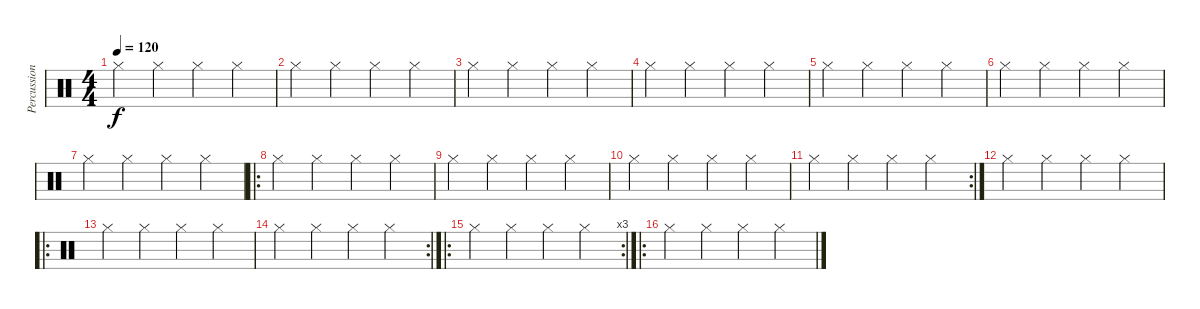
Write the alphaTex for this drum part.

\track ("Percussioni" "Percussion") {instrument percussion}
\staff {score}
\articulation defaults
\ts (4 4)
\tempo 120
\clef neutral
\ks c "Hi-Hat (closed)".4{dy f} "Hi-Hat (closed)".4 "Hi-Hat (closed)".4 "Hi-Hat (closed)".4
|
"Hi-Hat (closed)".4 "Hi-Hat (closed)".4 "Hi-Hat (closed)".4 "Hi-Hat (closed)".4 |
"Hi-Hat (closed)".4 "Hi-Hat (closed)".4 "Hi-Hat (closed)".4 "Hi-Hat (closed)".4 |
"Hi-Hat (closed)".4 "Hi-Hat (closed)".4 "Hi-Hat (closed)".4 "Hi-Hat (closed)".4 |
"Hi-Hat (closed)".4 "Hi-Hat (closed)".4 "Hi-Hat (closed)".4 "Hi-Hat (closed)".4 |
"Hi-Hat (closed)".4 "Hi-Hat (closed)".4 "Hi-Hat (closed)".4 "Hi-Hat (closed)".4 |
"Hi-Hat (closed)".4 "Hi-Hat (closed)".4 "Hi-Hat (closed)".4 "Hi-Hat (closed)".4 |
\ro "Hi-Hat (closed)".4 "Hi-Hat (closed)".4 "Hi-Hat (closed)".4 "Hi-Hat (closed)".4
|
"Hi-Hat (closed)".4 "Hi-Hat (closed)".4 "Hi-Hat (closed)".4 "Hi-Hat (closed)".4 |
"Hi-Hat (closed)".4 "Hi-Hat (closed)".4 "Hi-Hat (closed)".4 "Hi-Hat (closed)".4 |
\rc 2 "Hi-Hat (closed)".4 "Hi-Hat (closed)".4 "Hi-Hat (closed)".4 "Hi-Hat (closed)".4
|
"Hi-Hat (closed)".4 "Hi-Hat (closed)".4 "Hi-Hat (closed)".4 "Hi-Hat (closed)".4 |
\ro "Hi-Hat (closed)".4 "Hi-Hat (closed)".4 "Hi-Hat (closed)".4 "Hi-Hat (closed)".4
|
\rc 2 "Hi-Hat (closed)".4 "Hi-Hat (closed)".4 "Hi-Hat (closed)".4 "Hi-Hat (closed)".4
|
\ro
\rc 3 "Hi-Hat (closed)".4 "Hi-Hat (closed)".4 "Hi-Hat (closed)".4 "Hi-Hat (closed)".4
|
\ro "Hi-Hat (closed)".4 "Hi-Hat (closed)".4 "Hi-Hat (closed)".4 "Hi-Hat (closed)".4
